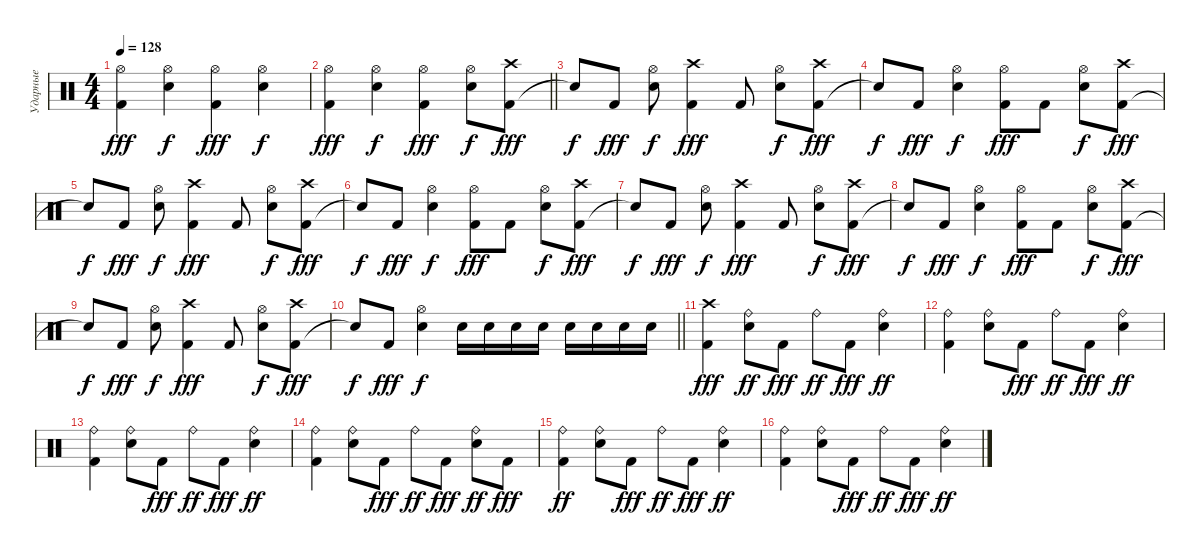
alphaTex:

\track ("Ударные" "Ударные") {instrument percussion}
\staff {score}
\articulation defaults
\ts (4 4)
\tempo 128
\clef neutral
\ks c
("Kick (hit) 2" "Hi-Hat (open)").4{dy fff} ("Snare (hit) 2" "Hi-Hat (open)").4{dy f} ("Kick (hit) 2" "Hi-Hat (open)").4{dy fff} ("Snare (hit) 2" "Hi-Hat (open)").4{dy f} |
\barLineRight lightlight
("Kick (hit) 2" "Hi-Hat (open)").4{dy fff} ("Snare (hit) 2" "Hi-Hat (open)").4{dy f} ("Kick (hit) 2" "Hi-Hat (open)").4{dy fff} ("Snare (hit) 2" "Hi-Hat (open)").8{dy f} ("Kick (hit) 2" "Crash high (hit)").8{dy fff} |
"Snare (hit)"{t}.8{dy f} "Kick (hit) 2".8{dy fff} ("Snare (hit) 2" "Hi-Hat (open)").8{dy f} ("Kick (hit) 2" "Crash high (hit)").4{dy fff} "Kick (hit) 2".8 ("Snare (hit) 2" "Hi-Hat (open)").8{dy f} ("Kick (hit) 2" "Crash high (hit)").8{dy fff} |
"Snare (hit)"{t}.8{dy f} "Kick (hit) 2".8{dy fff} ("Snare (hit) 2" "Hi-Hat (open)").4{dy f} ("Kick (hit) 2" "Hi-Hat (open)").8{dy fff} "Kick (hit) 2".8 ("Snare (hit) 2" "Hi-Hat (open)").8{dy f} ("Kick (hit) 2" "Crash high (hit)").8{dy fff} |
"Snare (hit)"{t}.8{dy f} "Kick (hit) 2".8{dy fff} ("Snare (hit) 2" "Hi-Hat (open)").8{dy f} ("Kick (hit) 2" "Crash high (hit)").4{dy fff} "Kick (hit) 2".8 ("Snare (hit) 2" "Hi-Hat (open)").8{dy f} ("Kick (hit) 2" "Crash high (hit)").8{dy fff} |
"Snare (hit)"{t}.8{dy f} "Kick (hit) 2".8{dy fff} ("Snare (hit) 2" "Hi-Hat (open)").4{dy f} ("Kick (hit) 2" "Hi-Hat (open)").8{dy fff} "Kick (hit) 2".8 ("Snare (hit) 2" "Hi-Hat (open)").8{dy f} ("Kick (hit) 2" "Crash high (hit)").8{dy fff} |
"Snare (hit)"{t}.8{dy f} "Kick (hit) 2".8{dy fff} ("Snare (hit) 2" "Hi-Hat (open)").8{dy f} ("Kick (hit) 2" "Crash high (hit)").4{dy fff} "Kick (hit) 2".8 ("Snare (hit) 2" "Hi-Hat (open)").8{dy f} ("Kick (hit) 2" "Crash high (hit)").8{dy fff} |
"Snare (hit)"{t}.8{dy f} "Kick (hit) 2".8{dy fff} ("Snare (hit) 2" "Hi-Hat (open)").4{dy f} ("Kick (hit) 2" "Hi-Hat (open)").8{dy fff} "Kick (hit) 2".8 ("Snare (hit) 2" "Hi-Hat (open)").8{dy f} ("Kick (hit) 2" "Crash high (hit)").8{dy fff} |
"Snare (hit)"{t}.8{dy f} "Kick (hit) 2".8{dy fff} ("Snare (hit) 2" "Hi-Hat (open)").8{dy f} ("Kick (hit) 2" "Crash high (hit)").4{dy fff} "Kick (hit) 2".8 ("Snare (hit) 2" "Hi-Hat (open)").8{dy f} ("Kick (hit) 2" "Crash high (hit)").8{dy fff} |
\barLineRight lightlight "Snare (hit)"{t}.8{dy f} "Kick (hit) 2".8{dy fff}
("Snare (hit) 2" "Hi-Hat (open)").4{dy f} "Snare (hit) 2".16 "Snare (hit) 2".16 "Snare (hit) 2".16 "Snare (hit) 2".16 "Snare (hit) 2".16 "Snare (hit) 2".16 "Snare (hit) 2".16 "Snare (hit) 2".16 |
("Kick (hit) 2" "Crash high (hit)").4{dy fff} ("Snare (hit) 2" "Ride (bell)").8{dy ff} "Kick (hit) 2".8{dy fff} "Ride (bell)".8{dy ff} "Kick (hit) 2".8{dy fff} ("Snare (hit) 2" "Ride (bell)").4{dy ff} |
("Kick (hit) 2" "Ride (bell)").4 ("Snare (hit) 2" "Ride (bell)").8 "Kick (hit) 2".8{dy fff} "Ride (bell)".8{dy ff} "Kick (hit) 2".8{dy fff} ("Snare (hit) 2" "Ride (bell)").4{dy ff} |
("Kick (hit) 2" "Ride (bell)").4 ("Snare (hit) 2" "Ride (bell)").8 "Kick (hit) 2".8{dy fff} "Ride (bell)".8{dy ff} "Kick (hit) 2".8{dy fff} ("Snare (hit) 2" "Ride (bell)").4{dy ff} |
("Kick (hit) 2" "Ride (bell)").4 ("Snare (hit) 2" "Ride (bell)").8 "Kick (hit) 2".8{dy fff} "Ride (bell)".8{dy ff} "Kick (hit) 2".8{dy fff} ("Snare (hit) 2" "Ride (bell)").8{dy ff} "Kick (hit) 2".8{dy fff} |
("Kick (hit) 2" "Ride (bell)").4{dy ff} ("Snare (hit) 2" "Ride (bell)").8 "Kick (hit) 2".8{dy fff} "Ride (bell)".8{dy ff} "Kick (hit) 2".8{dy fff} ("Snare (hit) 2" "Ride (bell)").4{dy ff} |
("Kick (hit) 2" "Ride (bell)").4 ("Snare (hit) 2" "Ride (bell)").8 "Kick (hit) 2".8{dy fff} "Ride (bell)".8{dy ff} "Kick (hit) 2".8{dy fff} ("Snare (hit) 2" "Ride (bell)").4{dy ff}
